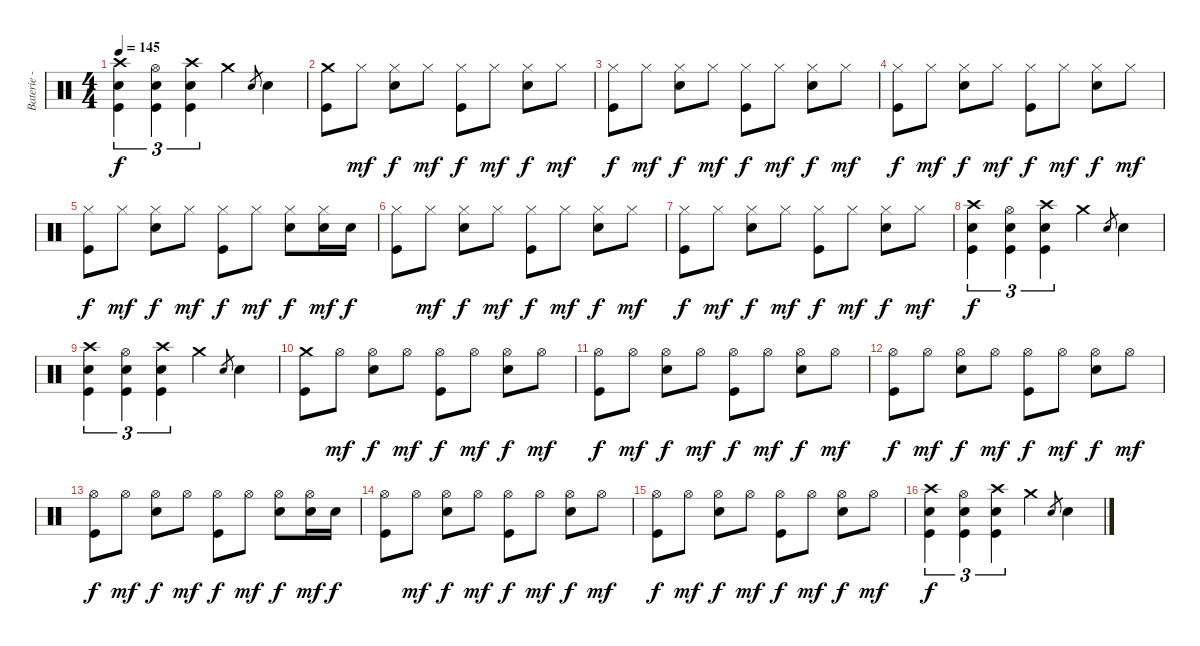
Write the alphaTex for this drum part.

\track ("Baterie - Alex" "Baterie - ") {instrument percussion}
\staff {score}
\articulation defaults
\ts (4 4)
\tempo 145
\clef neutral
\ks c
("Crash high (hit)" "Electric Snare (hit)" "Kick (hit)").4{tu (3 2) dy f} ("Hi-Hat (open)" "Electric Snare (hit)" "Kick (hit)").4{tu (3 2)} ("Crash high (hit)" "Electric Snare (hit)" "Kick (hit)").4{tu (3 2)} "Crash medium (hit)".4 "Electric Snare (hit)".8{gr} "Electric Snare (hit)".4 |
("Crash medium (hit)" "Kick (hit)").8 "Hi-Hat (closed)".8{dy mf} ("Hi-Hat (closed)" "Electric Snare (hit)").8{dy f} "Hi-Hat (closed)".8{dy mf} ("Hi-Hat (closed)" "Kick (hit)").8{dy f} "Hi-Hat (closed)".8{dy mf} ("Hi-Hat (closed)" "Electric Snare (hit)").8{dy f} "Hi-Hat (closed)".8{dy mf} |
("Hi-Hat (closed)" "Kick (hit)").8{dy f} "Hi-Hat (closed)".8{dy mf} ("Hi-Hat (closed)" "Electric Snare (hit)").8{dy f} "Hi-Hat (closed)".8{dy mf} ("Hi-Hat (closed)" "Kick (hit)").8{dy f} "Hi-Hat (closed)".8{dy mf} ("Hi-Hat (closed)" "Electric Snare (hit)").8{dy f} "Hi-Hat (closed)".8{dy mf} |
("Hi-Hat (closed)" "Kick (hit)").8{dy f} "Hi-Hat (closed)".8{dy mf} ("Hi-Hat (closed)" "Electric Snare (hit)").8{dy f} "Hi-Hat (closed)".8{dy mf} ("Hi-Hat (closed)" "Kick (hit)").8{dy f} "Hi-Hat (closed)".8{dy mf} ("Hi-Hat (closed)" "Electric Snare (hit)").8{dy f} "Hi-Hat (closed)".8{dy mf} |
("Hi-Hat (closed)" "Kick (hit)").8{dy f} "Hi-Hat (closed)".8{dy mf} ("Hi-Hat (closed)" "Electric Snare (hit)").8{dy f} "Hi-Hat (closed)".8{dy mf} ("Hi-Hat (closed)" "Kick (hit)").8{dy f} "Hi-Hat (closed)".8{dy mf} ("Hi-Hat (closed)" "Electric Snare (hit)").8{dy f} ("Hi-Hat (closed)" "Electric Snare (hit)").16{dy mf} "Electric Snare (hit)".16{dy f} |
("Hi-Hat (closed)" "Kick (hit)").8 "Hi-Hat (closed)".8{dy mf} ("Hi-Hat (closed)" "Electric Snare (hit)").8{dy f} "Hi-Hat (closed)".8{dy mf} ("Hi-Hat (closed)" "Kick (hit)").8{dy f} "Hi-Hat (closed)".8{dy mf} ("Hi-Hat (closed)" "Electric Snare (hit)").8{dy f} "Hi-Hat (closed)".8{dy mf} |
("Hi-Hat (closed)" "Kick (hit)").8{dy f} "Hi-Hat (closed)".8{dy mf} ("Hi-Hat (closed)" "Electric Snare (hit)").8{dy f} "Hi-Hat (closed)".8{dy mf} ("Hi-Hat (closed)" "Kick (hit)").8{dy f} "Hi-Hat (closed)".8{dy mf} ("Hi-Hat (closed)" "Electric Snare (hit)").8{dy f} "Hi-Hat (closed)".8{dy mf} |
("Crash high (hit)" "Electric Snare (hit)" "Kick (hit)").4{tu (3 2) dy f} ("Hi-Hat (open)" "Electric Snare (hit)" "Kick (hit)").4{tu (3 2)} ("Crash high (hit)" "Electric Snare (hit)" "Kick (hit)").4{tu (3 2)} "Crash medium (hit)".4 "Electric Snare (hit)".8{gr} "Electric Snare (hit)".4 |
("Crash high (hit)" "Electric Snare (hit)" "Kick (hit)").4{tu (3 2)} ("Hi-Hat (open)" "Electric Snare (hit)" "Kick (hit)").4{tu (3 2)} ("Crash high (hit)" "Electric Snare (hit)" "Kick (hit)").4{tu (3 2)} "Crash medium (hit)".4 "Electric Snare (hit)".8{gr} "Electric Snare (hit)".4 |
("Crash medium (hit)" "Kick (hit)").8 "Hi-Hat (open)".8{dy mf} ("Hi-Hat (open)" "Electric Snare (hit)").8{dy f} "Hi-Hat (open)".8{dy mf} ("Hi-Hat (open)" "Kick (hit)").8{dy f} "Hi-Hat (open)".8{dy mf} ("Hi-Hat (open)" "Electric Snare (hit)").8{dy f} "Hi-Hat (open)".8{dy mf} |
("Hi-Hat (open)" "Kick (hit)").8{dy f} "Hi-Hat (open)".8{dy mf} ("Hi-Hat (open)" "Electric Snare (hit)").8{dy f} "Hi-Hat (open)".8{dy mf} ("Hi-Hat (open)" "Kick (hit)").8{dy f} "Hi-Hat (open)".8{dy mf} ("Hi-Hat (open)" "Electric Snare (hit)").8{dy f} "Hi-Hat (open)".8{dy mf} |
("Hi-Hat (open)" "Kick (hit)").8{dy f} "Hi-Hat (open)".8{dy mf} ("Hi-Hat (open)" "Electric Snare (hit)").8{dy f} "Hi-Hat (open)".8{dy mf} ("Hi-Hat (open)" "Kick (hit)").8{dy f} "Hi-Hat (open)".8{dy mf} ("Hi-Hat (open)" "Electric Snare (hit)").8{dy f} "Hi-Hat (open)".8{dy mf} |
("Hi-Hat (open)" "Kick (hit)").8{dy f} "Hi-Hat (open)".8{dy mf} ("Hi-Hat (open)" "Electric Snare (hit)").8{dy f} "Hi-Hat (open)".8{dy mf} ("Hi-Hat (open)" "Kick (hit)").8{dy f} "Hi-Hat (open)".8{dy mf} ("Hi-Hat (open)" "Electric Snare (hit)").8{dy f} ("Hi-Hat (open)" "Electric Snare (hit)").16{dy mf} "Electric Snare (hit)".16{dy f} |
("Hi-Hat (open)" "Kick (hit)").8 "Hi-Hat (open)".8{dy mf} ("Hi-Hat (open)" "Electric Snare (hit)").8{dy f} "Hi-Hat (open)".8{dy mf} ("Hi-Hat (open)" "Kick (hit)").8{dy f} "Hi-Hat (open)".8{dy mf} ("Hi-Hat (open)" "Electric Snare (hit)").8{dy f} "Hi-Hat (open)".8{dy mf} |
("Hi-Hat (open)" "Kick (hit)").8{dy f} "Hi-Hat (open)".8{dy mf} ("Hi-Hat (open)" "Electric Snare (hit)").8{dy f} "Hi-Hat (open)".8{dy mf} ("Hi-Hat (open)" "Kick (hit)").8{dy f} "Hi-Hat (open)".8{dy mf} ("Hi-Hat (open)" "Electric Snare (hit)").8{dy f} "Hi-Hat (open)".8{dy mf} |
("Crash high (hit)" "Electric Snare (hit)" "Kick (hit)").4{tu (3 2) dy f} ("Hi-Hat (open)" "Electric Snare (hit)" "Kick (hit)").4{tu (3 2)} ("Crash high (hit)" "Electric Snare (hit)" "Kick (hit)").4{tu (3 2)} "Crash medium (hit)".4 "Electric Snare (hit)".8{gr} "Electric Snare (hit)".4
